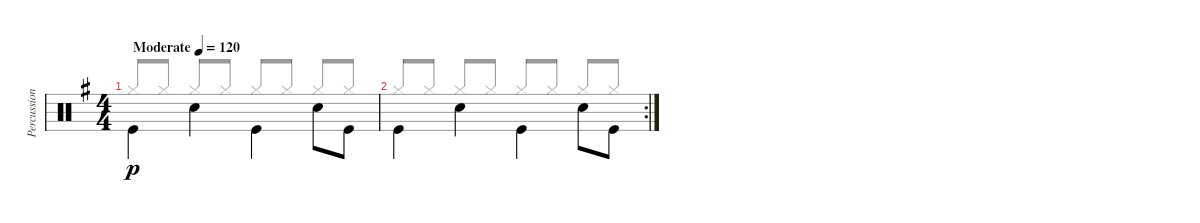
\track ("Percussion" "Percussion") {instrument percussion}
\staff {score}
\articulation defaults
\voice
\ts (4 4)
\tempo (120 "Moderate")
\clef neutral
\ks g "Kick (hit)".4{dy p beam Down} "Snare (hit) 2".4{beam Down} "Kick (hit)".4{beam Down} "Snare (hit) 2".8{beam Down} "Kick (hit)".8{beam Down}
|
\rc 2 "Kick (hit)".4{beam Down} "Snare (hit) 2".4{beam Down} "Kick (hit)".4{beam Down} "Snare (hit) 2".8{beam Down} "Kick (hit)".8{beam Down}
\voice
\clef neutral
\ks g "Hi-Hat (closed)".8{dy p beam Up} "Hi-Hat (closed)".8{beam Up} "Hi-Hat (closed)".8{beam Up} "Hi-Hat (closed)".8{beam Up} "Hi-Hat (closed)".8{beam Up} "Hi-Hat (closed)".8{beam Up} "Hi-Hat (closed)".8{beam Up} "Hi-Hat (closed)".8{beam Up}
|
"Hi-Hat (closed)".8{beam Up} "Hi-Hat (closed)".8{beam Up} "Hi-Hat (closed)".8{beam Up} "Hi-Hat (closed)".8{beam Up} "Hi-Hat (closed)".8{beam Up} "Hi-Hat (closed)".8{beam Up} "Hi-Hat (closed)".8{beam Up} "Hi-Hat (closed)".8{beam Up}
